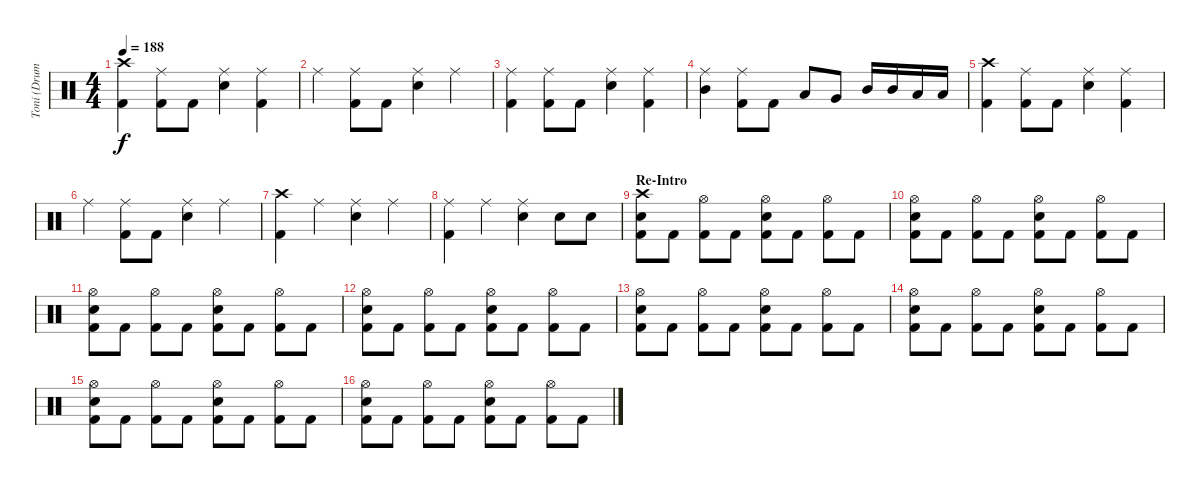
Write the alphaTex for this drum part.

\track ("Toni (Drums)" "Toni (Drum") {instrument percussion}
\staff {score}
\articulation defaults
\ts (4 4)
\tempo 188
\clef neutral
\ks c
("Crash high (hit)" "Kick (hit) 2").4{dy f} ("Ride (middle)" "Kick (hit) 2").8 "Kick (hit) 2".8 ("Ride (middle)" "Electric Snare (hit)").4 ("Ride (middle)" "Kick (hit) 2").4 |
"Ride (middle)".4 ("Ride (middle)" "Kick (hit) 2").8 "Kick (hit) 2".8 ("Ride (middle)" "Electric Snare (hit)").4 "Ride (middle)".4 |
("Ride (middle)" "Kick (hit) 2").4 ("Ride (middle)" "Kick (hit) 2").8 "Kick (hit) 2".8 ("Ride (middle)" "Electric Snare (hit)").4 ("Ride (middle)" "Kick (hit) 2").4 |
("Ride (middle)" "Mid Tom (hit)").4 ("Ride (middle)" "Kick (hit) 2").8 "Kick (hit) 2".8 "Low Tom (hit)".8 "Very Low Tom (hit)".8 "Mid Tom (hit)".16 "Mid Tom (hit)".16 "Low Tom (hit)".16 "Low Tom (hit)".16 |
("Crash high (hit)" "Kick (hit) 2").4 ("Ride (middle)" "Kick (hit) 2").8 "Kick (hit) 2".8 ("Ride (middle)" "Electric Snare (hit)").4 ("Ride (middle)" "Kick (hit) 2").4 |
"Ride (middle)".4 ("Ride (middle)" "Kick (hit) 2").8 "Kick (hit) 2".8 ("Ride (middle)" "Electric Snare (hit)").4 "Ride (middle)".4 |
("Crash high (hit)" "Kick (hit) 2").4 "Ride (middle)".4 ("Ride (middle)" "Electric Snare (hit)").4 "Ride (middle)".4 |
("Ride (middle)" "Kick (hit) 2").4 "Ride (middle)".4 ("Ride (middle)" "Electric Snare (hit)").4 "Electric Snare (hit)".8 "Electric Snare (hit)".8 |
\section ("" "Re-Intro")
("Crash high (hit)" "Electric Snare (hit)" "Kick (hit) 2").8 "Kick (hit) 2".8 ("Hi-Hat (open)" "Kick (hit) 2").8 "Kick (hit) 2".8 ("Hi-Hat (open)" "Electric Snare (hit)" "Kick (hit) 2").8 "Kick (hit) 2".8 ("Hi-Hat (open)" "Kick (hit) 2").8 "Kick (hit) 2".8 |
("Hi-Hat (open)" "Electric Snare (hit)" "Kick (hit) 2").8 "Kick (hit) 2".8 ("Hi-Hat (open)" "Kick (hit) 2").8 "Kick (hit) 2".8 ("Hi-Hat (open)" "Electric Snare (hit)" "Kick (hit) 2").8 "Kick (hit) 2".8 ("Hi-Hat (open)" "Kick (hit) 2").8 "Kick (hit) 2".8 |
("Hi-Hat (open)" "Electric Snare (hit)" "Kick (hit) 2").8 "Kick (hit) 2".8 ("Hi-Hat (open)" "Kick (hit) 2").8 "Kick (hit) 2".8 ("Hi-Hat (open)" "Electric Snare (hit)" "Kick (hit) 2").8 "Kick (hit) 2".8 ("Hi-Hat (open)" "Kick (hit) 2").8 "Kick (hit) 2".8 |
("Hi-Hat (open)" "Electric Snare (hit)" "Kick (hit) 2").8 "Kick (hit) 2".8 ("Hi-Hat (open)" "Kick (hit) 2").8 "Kick (hit) 2".8 ("Hi-Hat (open)" "Electric Snare (hit)" "Kick (hit) 2").8 "Kick (hit) 2".8 ("Hi-Hat (open)" "Kick (hit) 2").8 "Kick (hit) 2".8 |
("Hi-Hat (open)" "Electric Snare (hit)" "Kick (hit) 2").8 "Kick (hit) 2".8 ("Hi-Hat (open)" "Kick (hit) 2").8 "Kick (hit) 2".8 ("Hi-Hat (open)" "Electric Snare (hit)" "Kick (hit) 2").8 "Kick (hit) 2".8 ("Hi-Hat (open)" "Kick (hit) 2").8 "Kick (hit) 2".8 |
("Hi-Hat (open)" "Electric Snare (hit)" "Kick (hit) 2").8 "Kick (hit) 2".8 ("Hi-Hat (open)" "Kick (hit) 2").8 "Kick (hit) 2".8 ("Hi-Hat (open)" "Electric Snare (hit)" "Kick (hit) 2").8 "Kick (hit) 2".8 ("Hi-Hat (open)" "Kick (hit) 2").8 "Kick (hit) 2".8 |
("Hi-Hat (open)" "Electric Snare (hit)" "Kick (hit) 2").8 "Kick (hit) 2".8 ("Hi-Hat (open)" "Kick (hit) 2").8 "Kick (hit) 2".8 ("Hi-Hat (open)" "Electric Snare (hit)" "Kick (hit) 2").8 "Kick (hit) 2".8 ("Hi-Hat (open)" "Kick (hit) 2").8 "Kick (hit) 2".8 |
("Hi-Hat (open)" "Electric Snare (hit)" "Kick (hit) 2").8 "Kick (hit) 2".8 ("Hi-Hat (open)" "Kick (hit) 2").8 "Kick (hit) 2".8 ("Hi-Hat (open)" "Electric Snare (hit)" "Kick (hit) 2").8 "Kick (hit) 2".8 ("Hi-Hat (open)" "Kick (hit) 2").8 "Kick (hit) 2".8
